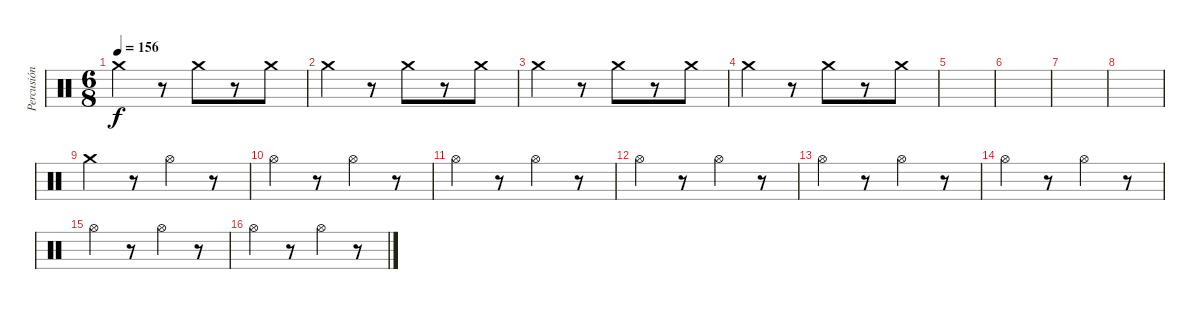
\track ("Percusión" "Percusión") {instrument percussion}
\staff {score}
\articulation defaults
\ts (6 8)
\tempo 156
\clef neutral
\ks c "Crash medium (hit)".4{dy f}
r.8 "Crash medium (hit)".8 r.8 "Crash medium (hit)".8 |
"Crash medium (hit)".4 r.8 "Crash medium (hit)".8 r.8 "Crash medium (hit)".8 |
"Crash medium (hit)".4 r.8 "Crash medium (hit)".8 r.8 "Crash medium (hit)".8 |
"Crash medium (hit)".4 r.8 "Crash medium (hit)".8 r.8 "Crash medium (hit)".8 |
|
|
|
|
"Crash medium (hit)".4 r.8 "Hi-Hat (open)".4 r.8 |
"Hi-Hat (open)".4 r.8 "Hi-Hat (open)".4 r.8 |
"Hi-Hat (open)".4 r.8 "Hi-Hat (open)".4 r.8 |
"Hi-Hat (open)".4 r.8 "Hi-Hat (open)".4 r.8 |
"Hi-Hat (open)".4 r.8 "Hi-Hat (open)".4 r.8 |
"Hi-Hat (open)".4 r.8 "Hi-Hat (open)".4 r.8 |
"Hi-Hat (open)".4 r.8 "Hi-Hat (open)".4 r.8 |
"Hi-Hat (open)".4 r.8 "Hi-Hat (open)".4 r.8
